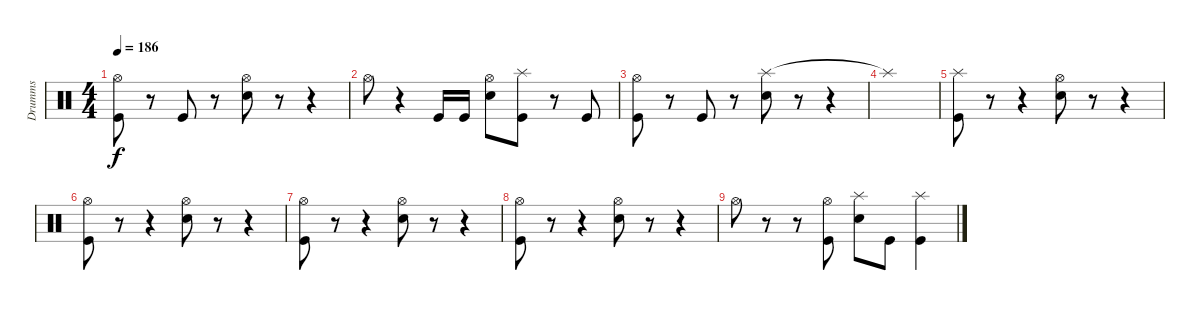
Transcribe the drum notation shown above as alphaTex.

\track ("Drumms" "Drumms") {instrument percussion}
\staff {score}
\articulation defaults
\ts (4 4)
\tempo 186
\clef neutral
\ks c
("Hi-Hat (open)" "Kick (hit)").8{dy f} r.8 "Kick (hit)".8 r.8 ("Hi-Hat (open)" "Snare (hit) 2").8 r.8 r.4 |
"Hi-Hat (open)".8 r.4 "Kick (hit)".16 "Kick (hit)".16 ("Hi-Hat (open)" "Snare (hit) 2").8 ("Splash (hit)" "Kick (hit)").8 r.8 "Kick (hit)".8 |
("Hi-Hat (open)" "Kick (hit)").8 r.8 "Kick (hit)".8 r.8 ("Splash (hit)" "Snare (hit) 2").8 r.8 r.4 |
"Splash (hit)"{t}.1 |
("Splash (hit)" "Kick (hit)").8 r.8 r.4 ("Hi-Hat (open)" "Snare (hit) 2").8 r.8 r.4 |
("Hi-Hat (open)" "Kick (hit)").8 r.8 r.4 ("Hi-Hat (open)" "Snare (hit) 2").8 r.8 r.4 |
("Hi-Hat (open)" "Kick (hit)").8 r.8 r.4 ("Hi-Hat (open)" "Snare (hit) 2").8 r.8 r.4 |
("Hi-Hat (open)" "Kick (hit)").8 r.8 r.4 ("Hi-Hat (open)" "Snare (hit) 2").8 r.8 r.4 |
"Hi-Hat (open)".8 r.8 r.8 ("Hi-Hat (open)" "Kick (hit)").8 ("Splash (hit)" "Snare (hit) 2").8 "Kick (hit)".8 ("Splash (hit)" "Kick (hit)").4
